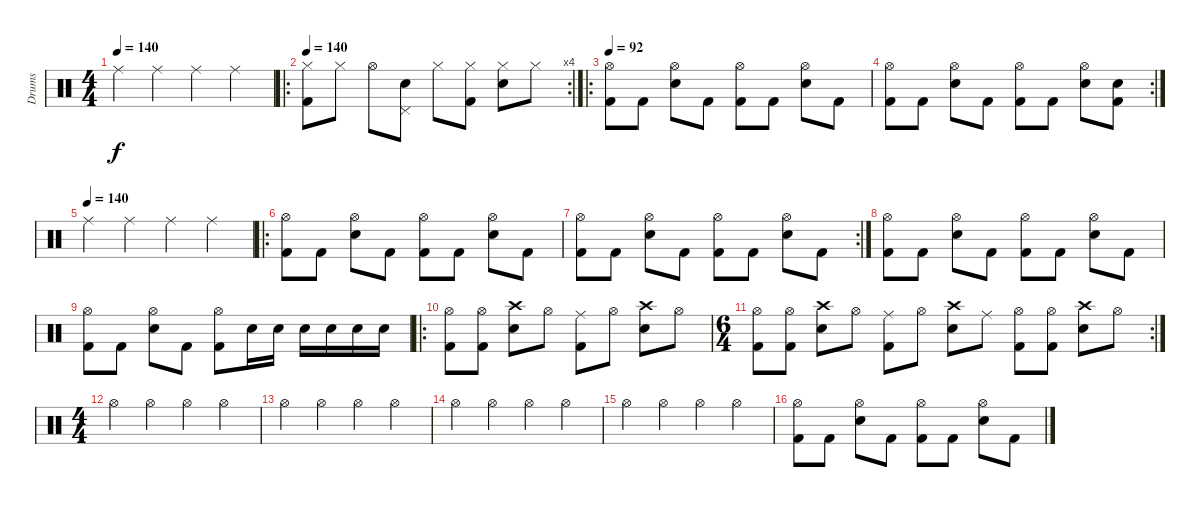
\track ("Drums" "Drums") {instrument percussion}
\staff {score}
\articulation defaults
\ts (4 4)
\tempo 140
\clef neutral
\ks c "Ride (middle)".4{dy f} "Ride (middle)".4 "Ride (middle)".4 "Ride (middle)".4
|
\ro
\rc 4
\tempo 140
("Hi-Hat (closed)" "Kick (hit) 2").8 "Hi-Hat (closed)".8 "Hi-Hat (open)".8 ("Pedal Hi-Hat (hit)" "Snare (hit) 2").8 "Hi-Hat (closed)".8 ("Hi-Hat (closed)" "Kick (hit) 2").8 ("Hi-Hat (closed)" "Snare (hit) 2").8 "Hi-Hat (closed)".8 |
\ro
\tempo 92
("Hi-Hat (open)" "Kick (hit) 2").8 "Kick (hit) 2".8 ("Hi-Hat (open)" "Snare (hit) 2").8 "Kick (hit) 2".8 ("Hi-Hat (open)" "Kick (hit) 2").8 "Kick (hit) 2".8 ("Hi-Hat (open)" "Snare (hit) 2").8 "Kick (hit) 2".8 |
\rc 2
("Hi-Hat (open)" "Kick (hit) 2").8 "Kick (hit) 2".8 ("Hi-Hat (open)" "Snare (hit) 2").8 "Kick (hit) 2".8 ("Hi-Hat (open)" "Kick (hit) 2").8 "Kick (hit) 2".8 ("Hi-Hat (open)" "Snare (hit) 2").8 ("Snare (hit) 2" "Kick (hit) 2").8 |
\tempo (140)
"Ride (middle)".4 "Ride (middle)".4 "Ride (middle)".4 "Ride (middle)".4 |
\ro
("Hi-Hat (open)" "Kick (hit) 2").8 "Kick (hit) 2".8 ("Hi-Hat (open)" "Snare (hit) 2").8 "Kick (hit) 2".8 ("Hi-Hat (open)" "Kick (hit) 2").8 "Kick (hit) 2".8 ("Hi-Hat (open)" "Snare (hit) 2").8 "Kick (hit) 2".8 |
\rc 2
("Hi-Hat (open)" "Kick (hit) 2").8 "Kick (hit) 2".8 ("Hi-Hat (open)" "Snare (hit) 2").8 "Kick (hit) 2".8 ("Hi-Hat (open)" "Kick (hit) 2").8 "Kick (hit) 2".8 ("Hi-Hat (open)" "Snare (hit) 2").8 "Kick (hit) 2".8 |
("Hi-Hat (open)" "Kick (hit) 2").8 "Kick (hit) 2".8 ("Hi-Hat (open)" "Snare (hit) 2").8 "Kick (hit) 2".8 ("Hi-Hat (open)" "Kick (hit) 2").8 "Kick (hit) 2".8 ("Hi-Hat (open)" "Snare (hit) 2").8 "Kick (hit) 2".8 |
("Hi-Hat (open)" "Kick (hit) 2").8 "Kick (hit) 2".8 ("Hi-Hat (open)" "Snare (hit) 2").8 "Kick (hit) 2".8 ("Hi-Hat (open)" "Kick (hit) 2").8 "Snare (hit) 2".16 "Snare (hit) 2".16 "Snare (hit) 2".16 "Snare (hit) 2".16 "Snare (hit) 2".16 "Snare (hit) 2".16 |
\ro
("Hi-Hat (open)" "Kick (hit) 2").8 ("Hi-Hat (open)" "Kick (hit) 2").8 ("Crash high (hit)" "Snare (hit) 2").8 "Hi-Hat (open)".8 ("Ride (middle)" "Kick (hit) 2").8 "Hi-Hat (open)".8 ("Crash high (hit)" "Snare (hit) 2").8 "Hi-Hat (open)".8 |
\rc 2
\ts (6 4)
("Hi-Hat (open)" "Kick (hit) 2").8 ("Hi-Hat (open)" "Kick (hit) 2").8 ("Crash high (hit)" "Snare (hit) 2").8 "Hi-Hat (open)".8 ("Ride (middle)" "Kick (hit) 2").8 "Hi-Hat (open)".8 ("Crash high (hit)" "Snare (hit) 2").8 "Ride (middle)".8 ("Hi-Hat (open)" "Kick (hit) 2").8 ("Hi-Hat (open)" "Kick (hit) 2").8 ("Crash high (hit)" "Snare (hit) 2").8 "Hi-Hat (open)".8 |
\ts (4 4)
"Hi-Hat (open)".4 "Hi-Hat (open)".4 "Hi-Hat (open)".4 "Hi-Hat (open)".4 |
"Hi-Hat (open)".4 "Hi-Hat (open)".4 "Hi-Hat (open)".4 "Hi-Hat (open)".4 |
"Hi-Hat (open)".4 "Hi-Hat (open)".4 "Hi-Hat (open)".4 "Hi-Hat (open)".4 |
"Hi-Hat (open)".4 "Hi-Hat (open)".4 "Hi-Hat (open)".4 "Hi-Hat (open)".4 |
("Hi-Hat (open)" "Kick (hit) 2").8 "Kick (hit) 2".8 ("Hi-Hat (open)" "Snare (hit) 2").8 "Kick (hit) 2".8 ("Hi-Hat (open)" "Kick (hit) 2").8 "Kick (hit) 2".8 ("Hi-Hat (open)" "Snare (hit) 2").8 "Kick (hit) 2".8
